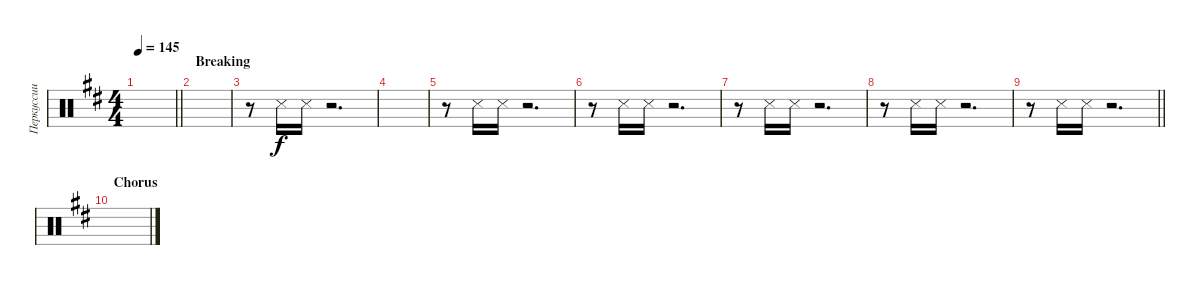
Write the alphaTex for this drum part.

\track ("Перкуссии" "Перкуссии") {instrument percussion}
\staff {score}
\articulation defaults
\ts (4 4)
\tempo 145
\clef neutral
\barLineRight lightlight
\ks bminor
|
\section ("" "Breaking")
|
r.8 "Snare (side stick) 3".16 "Snare (side stick) 3".16 r.2{d} |
|
r.8 "Snare (side stick) 3".16 "Snare (side stick) 3".16 r.2{d} |
r.8 "Snare (side stick) 3".16 "Snare (side stick) 3".16 r.2{d} |
r.8 "Snare (side stick) 3".16 "Snare (side stick) 3".16 r.2{d} |
r.8 "Snare (side stick) 3".16 "Snare (side stick) 3".16 r.2{d} |
\barLineRight lightlight
r.8 "Snare (side stick) 3".16 "Snare (side stick) 3".16 r.2{d} |
\section ("" "Chorus")
